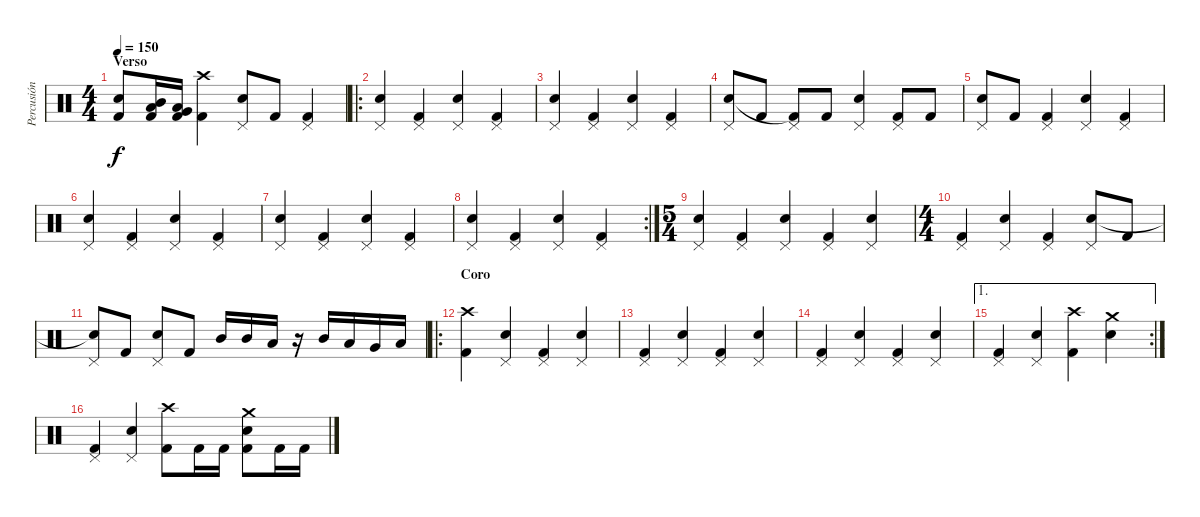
\track ("Percusión" "Percusión") {instrument percussion}
\staff {score}
\articulation defaults
\ts (4 4)
\section ("" "Verso")
\tempo 150
\clef neutral
\ks c
("Electric Snare (hit)" "Kick (hit) 2").8{dy f} ("Mid Tom (hit)" "Low Tom (hit)" "Kick (hit) 2").16 ("Low Tom (hit)" "Very Low Tom (hit)" "Kick (hit) 2").16 ("Crash high (hit)" "Kick (hit) 2").4 ("Pedal Hi-Hat (hit)" "Electric Snare (hit)").8 "Kick (hit) 2".8 ("Pedal Hi-Hat (hit)" "Kick (hit) 2").4 |
\ro
("Pedal Hi-Hat (hit)" "Electric Snare (hit)").4 ("Pedal Hi-Hat (hit)" "Kick (hit) 2").4 ("Pedal Hi-Hat (hit)" "Electric Snare (hit)").4 ("Pedal Hi-Hat (hit)" "Kick (hit) 2").4 |
("Pedal Hi-Hat (hit)" "Electric Snare (hit)").4 ("Pedal Hi-Hat (hit)" "Kick (hit) 2").4 ("Pedal Hi-Hat (hit)" "Electric Snare (hit)").4 ("Pedal Hi-Hat (hit)" "Kick (hit) 2").4 |
("Pedal Hi-Hat (hit)" "Electric Snare (hit)").8 "Kick (hit) 2".8 ("Pedal Hi-Hat (hit)" "Kick (hit) 2"{t}).8 "Kick (hit) 2".8 ("Pedal Hi-Hat (hit)" "Electric Snare (hit)").4 ("Pedal Hi-Hat (hit)" "Kick (hit) 2").8 "Kick (hit) 2".8 |
("Pedal Hi-Hat (hit)" "Electric Snare (hit)").8 "Kick (hit) 2".8 ("Pedal Hi-Hat (hit)" "Kick (hit) 2").4 ("Pedal Hi-Hat (hit)" "Electric Snare (hit)").4 ("Pedal Hi-Hat (hit)" "Kick (hit) 2").4 |
("Pedal Hi-Hat (hit)" "Electric Snare (hit)").4 ("Pedal Hi-Hat (hit)" "Kick (hit) 2").4 ("Pedal Hi-Hat (hit)" "Electric Snare (hit)").4 ("Pedal Hi-Hat (hit)" "Kick (hit) 2").4 |
("Pedal Hi-Hat (hit)" "Electric Snare (hit)").4 ("Pedal Hi-Hat (hit)" "Kick (hit) 2").4 ("Pedal Hi-Hat (hit)" "Electric Snare (hit)").4 ("Pedal Hi-Hat (hit)" "Kick (hit) 2").4 |
\rc 2
("Pedal Hi-Hat (hit)" "Electric Snare (hit)").4 ("Pedal Hi-Hat (hit)" "Kick (hit) 2").4 ("Pedal Hi-Hat (hit)" "Electric Snare (hit)").4 ("Pedal Hi-Hat (hit)" "Kick (hit) 2").4 |
\ts (5 4)
("Pedal Hi-Hat (hit)" "Electric Snare (hit)").4 ("Pedal Hi-Hat (hit)" "Kick (hit) 2").4 ("Pedal Hi-Hat (hit)" "Electric Snare (hit)").4 ("Pedal Hi-Hat (hit)" "Kick (hit) 2").4 ("Pedal Hi-Hat (hit)" "Electric Snare (hit)").4 |
\ts (4 4)
("Pedal Hi-Hat (hit)" "Kick (hit) 2").4 ("Pedal Hi-Hat (hit)" "Electric Snare (hit)").4 ("Pedal Hi-Hat (hit)" "Kick (hit) 2").4 ("Pedal Hi-Hat (hit)" "Electric Snare (hit)").8 "Kick (hit) 2".8 |
("Pedal Hi-Hat (hit)" "Snare (hit)"{t}).8 "Kick (hit) 2".8 ("Pedal Hi-Hat (hit)" "Electric Snare (hit)").8 "Kick (hit) 2".8 "Mid Tom (hit)".16 "Mid Tom (hit)".16 "Low Tom (hit)".16 r.16 "Mid Tom (hit)".16 "Low Tom (hit)".16 "Very Low Tom (hit)".16 "Low Floor Tom (hit)".16 |
\ro
\section ("" "Coro")
("Crash high (hit)" "Kick (hit) 2").4 ("Pedal Hi-Hat (hit)" "Electric Snare (hit)").4 ("Pedal Hi-Hat (hit)" "Kick (hit) 2").4 ("Pedal Hi-Hat (hit)" "Electric Snare (hit)").4 |
("Pedal Hi-Hat (hit)" "Kick (hit) 2").4 ("Pedal Hi-Hat (hit)" "Electric Snare (hit)").4 ("Pedal Hi-Hat (hit)" "Kick (hit) 2").4 ("Pedal Hi-Hat (hit)" "Electric Snare (hit)").4 |
("Pedal Hi-Hat (hit)" "Kick (hit) 2").4 ("Pedal Hi-Hat (hit)" "Electric Snare (hit)").4 ("Pedal Hi-Hat (hit)" "Kick (hit) 2").4 ("Pedal Hi-Hat (hit)" "Electric Snare (hit)").4 |
\ae 1
\rc 2
("Pedal Hi-Hat (hit)" "Kick (hit) 2").4 ("Pedal Hi-Hat (hit)" "Electric Snare (hit)").4 ("Crash high (hit)" "Kick (hit) 2").4 ("Crash medium (hit)" "Electric Snare (hit)").4 |
("Pedal Hi-Hat (hit)" "Kick (hit) 2").4 ("Pedal Hi-Hat (hit)" "Electric Snare (hit)").4 ("Crash high (hit)" "Kick (hit) 2").8 "Kick (hit) 2".16 "Kick (hit) 2".16 ("Crash medium (hit)" "Electric Snare (hit)" "Kick (hit) 2").8 "Kick (hit) 2".16 "Kick (hit) 2".16
